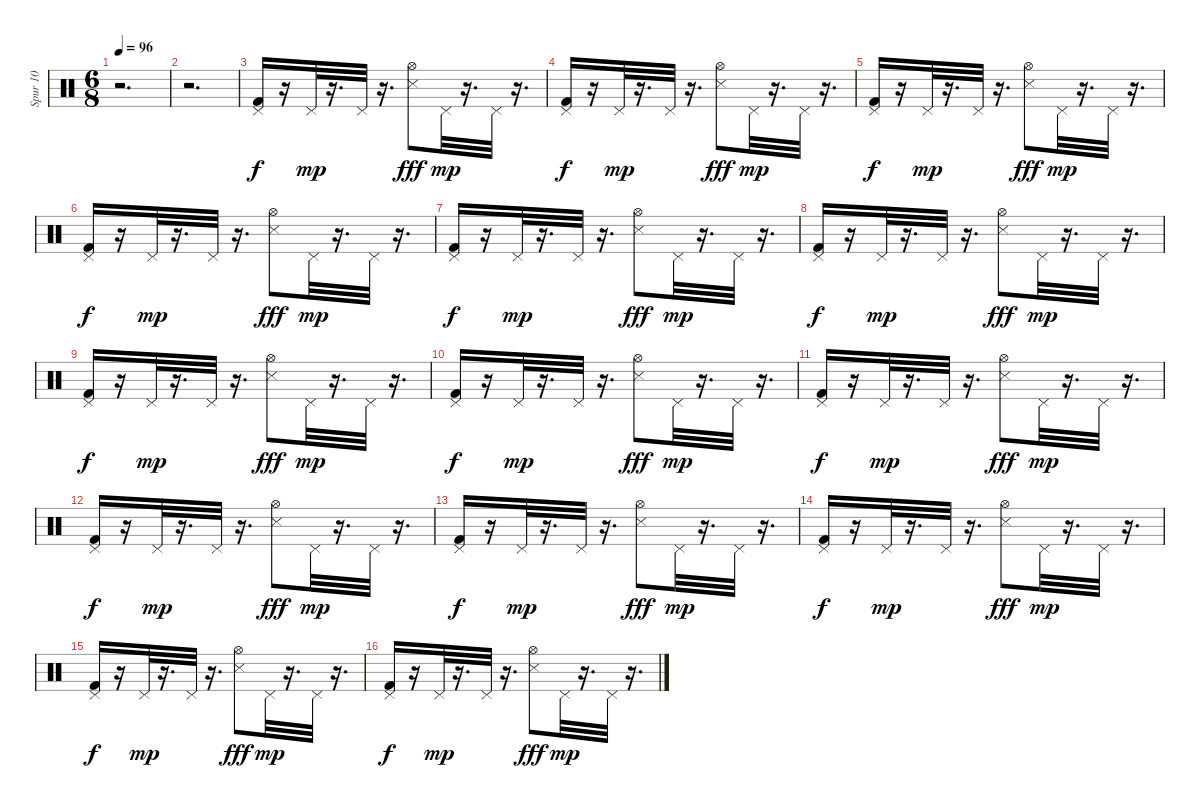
\track ("Spur 10" "Spur 10") {instrument percussion}
\staff {score}
\articulation defaults
\ts (6 8)
\tempo 96
\clef neutral
\ks c
r.2{d dy f} |
r.2{d} |
("Pedal Hi-Hat (hit)" "Kick (hit) 2").16 r.16 "Pedal Hi-Hat (hit)".32{dy mp} r.16{d} "Pedal Hi-Hat (hit)".32 r.16{d} ("Snare (side stick) 3" "Hi-Hat (open)").8{dy fff} "Pedal Hi-Hat (hit)".32{dy mp} r.16{d} "Pedal Hi-Hat (hit)".32 r.16{d} |
("Pedal Hi-Hat (hit)" "Kick (hit) 2").16{dy f} r.16 "Pedal Hi-Hat (hit)".32{dy mp} r.16{d} "Pedal Hi-Hat (hit)".32 r.16{d} ("Snare (side stick) 3" "Hi-Hat (open)").8{dy fff} "Pedal Hi-Hat (hit)".32{dy mp} r.16{d} "Pedal Hi-Hat (hit)".32 r.16{d} |
("Pedal Hi-Hat (hit)" "Kick (hit) 2").16{dy f} r.16 "Pedal Hi-Hat (hit)".32{dy mp} r.16{d} "Pedal Hi-Hat (hit)".32 r.16{d} ("Snare (side stick) 3" "Hi-Hat (open)").8{dy fff} "Pedal Hi-Hat (hit)".32{dy mp} r.16{d} "Pedal Hi-Hat (hit)".32 r.16{d} |
("Pedal Hi-Hat (hit)" "Kick (hit) 2").16{dy f} r.16 "Pedal Hi-Hat (hit)".32{dy mp} r.16{d} "Pedal Hi-Hat (hit)".32 r.16{d} ("Snare (side stick) 3" "Hi-Hat (open)").8{dy fff} "Pedal Hi-Hat (hit)".32{dy mp} r.16{d} "Pedal Hi-Hat (hit)".32 r.16{d} |
("Pedal Hi-Hat (hit)" "Kick (hit) 2").16{dy f} r.16 "Pedal Hi-Hat (hit)".32{dy mp} r.16{d} "Pedal Hi-Hat (hit)".32 r.16{d} ("Snare (side stick) 3" "Hi-Hat (open)").8{dy fff} "Pedal Hi-Hat (hit)".32{dy mp} r.16{d} "Pedal Hi-Hat (hit)".32 r.16{d} |
("Pedal Hi-Hat (hit)" "Kick (hit) 2").16{dy f} r.16 "Pedal Hi-Hat (hit)".32{dy mp} r.16{d} "Pedal Hi-Hat (hit)".32 r.16{d} ("Snare (side stick) 3" "Hi-Hat (open)").8{dy fff} "Pedal Hi-Hat (hit)".32{dy mp} r.16{d} "Pedal Hi-Hat (hit)".32 r.16{d} |
("Pedal Hi-Hat (hit)" "Kick (hit) 2").16{dy f} r.16 "Pedal Hi-Hat (hit)".32{dy mp} r.16{d} "Pedal Hi-Hat (hit)".32 r.16{d} ("Snare (side stick) 3" "Hi-Hat (open)").8{dy fff} "Pedal Hi-Hat (hit)".32{dy mp} r.16{d} "Pedal Hi-Hat (hit)".32 r.16{d} |
("Pedal Hi-Hat (hit)" "Kick (hit) 2").16{dy f} r.16 "Pedal Hi-Hat (hit)".32{dy mp} r.16{d} "Pedal Hi-Hat (hit)".32 r.16{d} ("Snare (side stick) 3" "Hi-Hat (open)").8{dy fff} "Pedal Hi-Hat (hit)".32{dy mp} r.16{d} "Pedal Hi-Hat (hit)".32 r.16{d} |
("Pedal Hi-Hat (hit)" "Kick (hit) 2").16{dy f} r.16 "Pedal Hi-Hat (hit)".32{dy mp} r.16{d} "Pedal Hi-Hat (hit)".32 r.16{d} ("Snare (side stick) 3" "Hi-Hat (open)").8{dy fff} "Pedal Hi-Hat (hit)".32{dy mp} r.16{d} "Pedal Hi-Hat (hit)".32 r.16{d} |
("Pedal Hi-Hat (hit)" "Kick (hit) 2").16{dy f} r.16 "Pedal Hi-Hat (hit)".32{dy mp} r.16{d} "Pedal Hi-Hat (hit)".32 r.16{d} ("Snare (side stick) 3" "Hi-Hat (open)").8{dy fff} "Pedal Hi-Hat (hit)".32{dy mp} r.16{d} "Pedal Hi-Hat (hit)".32 r.16{d} |
("Pedal Hi-Hat (hit)" "Kick (hit) 2").16{dy f} r.16 "Pedal Hi-Hat (hit)".32{dy mp} r.16{d} "Pedal Hi-Hat (hit)".32 r.16{d} ("Snare (side stick) 3" "Hi-Hat (open)").8{dy fff} "Pedal Hi-Hat (hit)".32{dy mp} r.16{d} "Pedal Hi-Hat (hit)".32 r.16{d} |
("Pedal Hi-Hat (hit)" "Kick (hit) 2").16{dy f} r.16 "Pedal Hi-Hat (hit)".32{dy mp} r.16{d} "Pedal Hi-Hat (hit)".32 r.16{d} ("Snare (side stick) 3" "Hi-Hat (open)").8{dy fff} "Pedal Hi-Hat (hit)".32{dy mp} r.16{d} "Pedal Hi-Hat (hit)".32 r.16{d} |
("Pedal Hi-Hat (hit)" "Kick (hit) 2").16{dy f} r.16 "Pedal Hi-Hat (hit)".32{dy mp} r.16{d} "Pedal Hi-Hat (hit)".32 r.16{d} ("Snare (side stick) 3" "Hi-Hat (open)").8{dy fff} "Pedal Hi-Hat (hit)".32{dy mp} r.16{d} "Pedal Hi-Hat (hit)".32 r.16{d} |
("Pedal Hi-Hat (hit)" "Kick (hit) 2").16{dy f} r.16 "Pedal Hi-Hat (hit)".32{dy mp} r.16{d} "Pedal Hi-Hat (hit)".32 r.16{d} ("Snare (side stick) 3" "Hi-Hat (open)").8{dy fff} "Pedal Hi-Hat (hit)".32{dy mp} r.16{d} "Pedal Hi-Hat (hit)".32 r.16{d}
